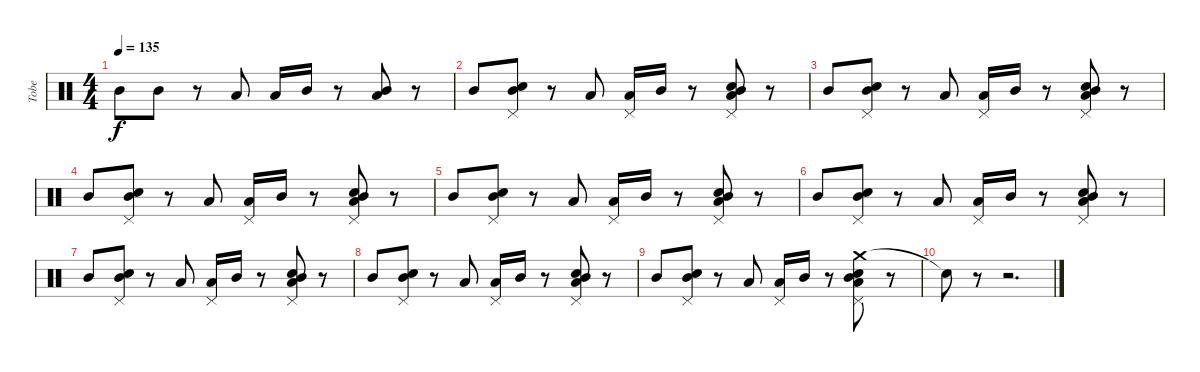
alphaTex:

\track ("Tobe" "Tobe") {instrument percussion}
\staff {score}
\articulation defaults
\ts (4 4)
\tempo 135
\clef neutral
\ks c "Mid Tom (hit)".8{dy f} "Mid Tom (hit)".8
r.8 "Low Tom (hit)".8 "Low Tom (hit)".16 "Mid Tom (hit)".16 r.8 ("Mid Tom (hit)" "Low Tom (hit)").8 r.8 |
"Mid Tom (hit)".8 ("Mid Tom (hit)" "Snare (hit) 2" "Pedal Hi-Hat (hit)").8 r.8 "Low Tom (hit)".8 ("Low Tom (hit)" "Pedal Hi-Hat (hit)").16 "Mid Tom (hit)".16 r.8 ("Snare (hit) 2" "Mid Tom (hit)" "Low Tom (hit)" "Pedal Hi-Hat (hit)").8 r.8 |
"Mid Tom (hit)".8 ("Mid Tom (hit)" "Snare (hit) 2" "Pedal Hi-Hat (hit)").8 r.8 "Low Tom (hit)".8 ("Low Tom (hit)" "Pedal Hi-Hat (hit)").16 "Mid Tom (hit)".16 r.8 ("Snare (hit) 2" "Mid Tom (hit)" "Low Tom (hit)" "Pedal Hi-Hat (hit)").8 r.8 |
"Mid Tom (hit)".8 ("Mid Tom (hit)" "Snare (hit) 2" "Pedal Hi-Hat (hit)").8 r.8 "Low Tom (hit)".8 ("Low Tom (hit)" "Pedal Hi-Hat (hit)").16 "Mid Tom (hit)".16 r.8 ("Snare (hit) 2" "Mid Tom (hit)" "Low Tom (hit)" "Pedal Hi-Hat (hit)").8 r.8 |
"Mid Tom (hit)".8 ("Mid Tom (hit)" "Snare (hit) 2" "Pedal Hi-Hat (hit)").8 r.8 "Low Tom (hit)".8 ("Low Tom (hit)" "Pedal Hi-Hat (hit)").16 "Mid Tom (hit)".16 r.8 ("Snare (hit) 2" "Mid Tom (hit)" "Low Tom (hit)" "Pedal Hi-Hat (hit)").8 r.8 |
"Mid Tom (hit)".8 ("Mid Tom (hit)" "Snare (hit) 2" "Pedal Hi-Hat (hit)").8 r.8 "Low Tom (hit)".8 ("Low Tom (hit)" "Pedal Hi-Hat (hit)").16 "Mid Tom (hit)".16 r.8 ("Snare (hit) 2" "Mid Tom (hit)" "Low Tom (hit)" "Pedal Hi-Hat (hit)").8 r.8 |
"Mid Tom (hit)".8 ("Mid Tom (hit)" "Snare (hit) 2" "Pedal Hi-Hat (hit)").8 r.8 "Low Tom (hit)".8 ("Low Tom (hit)" "Pedal Hi-Hat (hit)").16 "Mid Tom (hit)".16 r.8 ("Snare (hit) 2" "Mid Tom (hit)" "Low Tom (hit)" "Pedal Hi-Hat (hit)").8 r.8 |
"Mid Tom (hit)".8 ("Mid Tom (hit)" "Snare (hit) 2" "Pedal Hi-Hat (hit)").8 r.8 "Low Tom (hit)".8 ("Low Tom (hit)" "Pedal Hi-Hat (hit)").16 "Mid Tom (hit)".16 r.8 ("Snare (hit) 2" "Mid Tom (hit)" "Low Tom (hit)" "Pedal Hi-Hat (hit)").8 r.8 |
"Mid Tom (hit)".8 ("Mid Tom (hit)" "Snare (hit) 2" "Pedal Hi-Hat (hit)").8 r.8 "Low Tom (hit)".8 ("Low Tom (hit)" "Pedal Hi-Hat (hit)").16 "Mid Tom (hit)".16 r.8 ("Crash medium (hit)" "Snare (hit) 2" "Mid Tom (hit)" "Low Tom (hit)" "Pedal Hi-Hat (hit)").8 r.8 |
"Snare (hit)"{t}.8 r.8 r.2{d}
